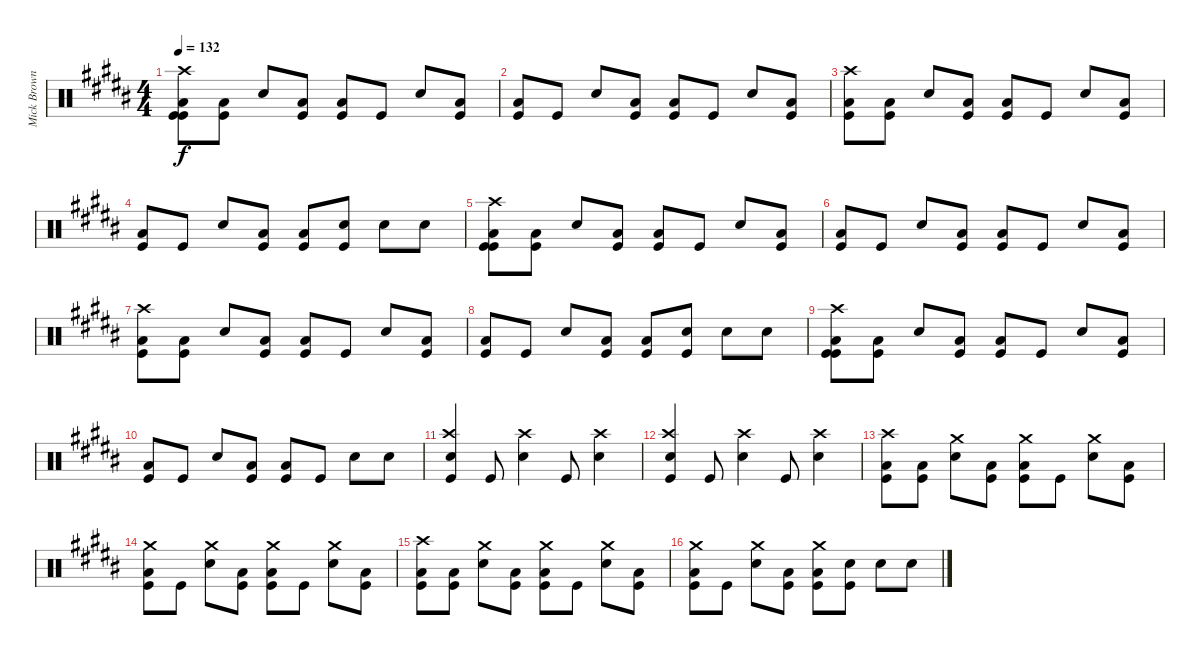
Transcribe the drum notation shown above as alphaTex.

\track ("Mick Brown" "Mick Brown") {instrument percussion}
\staff {score}
\articulation defaults
\ts (4 4)
\tempo 132
\clef neutral
\ks g#minor
("Kick (hit)" "Low Floor Tom (hit)" "Crash high (hit)" "Kick (hit)").8{dy f} ("Low Floor Tom (hit)" "Kick (hit)").8 "Snare (hit) 2".8 ("Kick (hit)" "Low Floor Tom (hit)").8 ("Low Floor Tom (hit)" "Kick (hit)").8 "Kick (hit)".8 "Snare (hit) 2".8 ("Low Floor Tom (hit)" "Kick (hit)").8 |
("Kick (hit)" "Low Floor Tom (hit)").8 "Kick (hit)".8 "Snare (hit) 2".8 ("Kick (hit)" "Low Floor Tom (hit)").8 ("Kick (hit)" "Low Floor Tom (hit)").8 "Kick (hit)".8 "Snare (hit) 2".8 ("Low Floor Tom (hit)" "Kick (hit)").8 |
("Low Floor Tom (hit)" "Kick (hit)" "Crash high (hit)").8 ("Low Floor Tom (hit)" "Kick (hit)").8 "Snare (hit) 2".8 ("Low Floor Tom (hit)" "Kick (hit)").8 ("Low Floor Tom (hit)" "Kick (hit)").8 "Kick (hit)".8 "Snare (hit) 2".8 ("Low Floor Tom (hit)" "Kick (hit)").8 |
("Low Floor Tom (hit)" "Kick (hit)").8 "Kick (hit)".8 "Snare (hit) 2".8 ("Kick (hit)" "Low Floor Tom (hit)").8 ("Kick (hit)" "Low Floor Tom (hit)").8 ("Kick (hit)" "Snare (hit) 2").8 "Snare (hit) 2".8 "Snare (hit) 2".8 |
("Kick (hit)" "Low Floor Tom (hit)" "Crash high (hit)" "Kick (hit)").8 ("Low Floor Tom (hit)" "Kick (hit)").8 "Snare (hit) 2".8 ("Kick (hit)" "Low Floor Tom (hit)").8 ("Low Floor Tom (hit)" "Kick (hit)").8 "Kick (hit)".8 "Snare (hit) 2".8 ("Low Floor Tom (hit)" "Kick (hit)").8 |
("Kick (hit)" "Low Floor Tom (hit)").8 "Kick (hit)".8 "Snare (hit) 2".8 ("Kick (hit)" "Low Floor Tom (hit)").8 ("Kick (hit)" "Low Floor Tom (hit)").8 "Kick (hit)".8 "Snare (hit) 2".8 ("Low Floor Tom (hit)" "Kick (hit)").8 |
("Low Floor Tom (hit)" "Kick (hit)" "Crash high (hit)").8 ("Low Floor Tom (hit)" "Kick (hit)").8 "Snare (hit) 2".8 ("Low Floor Tom (hit)" "Kick (hit)").8 ("Low Floor Tom (hit)" "Kick (hit)").8 "Kick (hit)".8 "Snare (hit) 2".8 ("Low Floor Tom (hit)" "Kick (hit)").8 |
("Low Floor Tom (hit)" "Kick (hit)").8 "Kick (hit)".8 "Snare (hit) 2".8 ("Kick (hit)" "Low Floor Tom (hit)").8 ("Kick (hit)" "Low Floor Tom (hit)").8 ("Kick (hit)" "Snare (hit) 2").8 "Snare (hit) 2".8 "Snare (hit) 2".8 |
("Kick (hit)" "Low Floor Tom (hit)" "Crash high (hit)" "Kick (hit)").8 ("Low Floor Tom (hit)" "Kick (hit)").8 "Snare (hit) 2".8 ("Kick (hit)" "Low Floor Tom (hit)").8 ("Low Floor Tom (hit)" "Kick (hit)").8 "Kick (hit)".8 "Snare (hit) 2".8 ("Low Floor Tom (hit)" "Kick (hit)").8 |
("Kick (hit)" "Low Floor Tom (hit)").8 "Kick (hit)".8 "Snare (hit) 2".8 ("Kick (hit)" "Low Floor Tom (hit)").8 ("Kick (hit)" "Low Floor Tom (hit)").8 "Kick (hit)".8 "Snare (hit) 2".8 "Snare (hit) 2".8 |
("Kick (hit)" "Snare (hit) 2" "Crash high (hit)").4 "Kick (hit)".8 ("Snare (hit) 2" "Crash high (hit)").4 "Kick (hit)".8 ("Snare (hit) 2" "Crash high (hit)").4 |
("Kick (hit)" "Snare (hit) 2" "Crash high (hit)").4 "Kick (hit)".8 ("Snare (hit) 2" "Crash high (hit)").4 "Kick (hit)".8 ("Snare (hit) 2" "Crash high (hit)").4 |
("Kick (hit)" "Low Floor Tom (hit)" "Crash high (hit)").8 ("Low Floor Tom (hit)" "Kick (hit)").8 ("Crash medium (hit)" "Snare (hit) 2").8 ("Low Floor Tom (hit)" "Kick (hit)").8 ("Crash medium (hit)" "Low Floor Tom (hit)" "Kick (hit)").8 "Kick (hit)".8 ("Crash medium (hit)" "Snare (hit) 2").8 ("Low Floor Tom (hit)" "Kick (hit)").8 |
("Crash medium (hit)" "Kick (hit)" "Low Floor Tom (hit)").8 "Kick (hit)".8 ("Crash medium (hit)" "Snare (hit) 2").8 ("Low Floor Tom (hit)" "Kick (hit)").8 ("Crash medium (hit)" "Kick (hit)" "Low Floor Tom (hit)").8 "Kick (hit)".8 ("Crash medium (hit)" "Snare (hit) 2").8 ("Low Floor Tom (hit)" "Kick (hit)").8 |
("Low Floor Tom (hit)" "Kick (hit)" "Crash high (hit)").8 ("Low Floor Tom (hit)" "Kick (hit)").8 ("Snare (hit) 2" "Crash medium (hit)").8 ("Kick (hit)" "Low Floor Tom (hit)").8 ("Low Floor Tom (hit)" "Kick (hit)" "Crash medium (hit)").8 "Kick (hit)".8 ("Snare (hit) 2" "Crash medium (hit)").8 ("Low Floor Tom (hit)" "Kick (hit)").8 |
("Crash medium (hit)" "Low Floor Tom (hit)" "Kick (hit)").8 "Kick (hit)".8 ("Crash medium (hit)" "Snare (hit) 2").8 ("Low Floor Tom (hit)" "Kick (hit)").8 ("Crash medium (hit)" "Kick (hit)" "Low Floor Tom (hit)").8 ("Snare (hit) 2" "Kick (hit)").8 "Snare (hit) 2".8 "Snare (hit) 2".8
